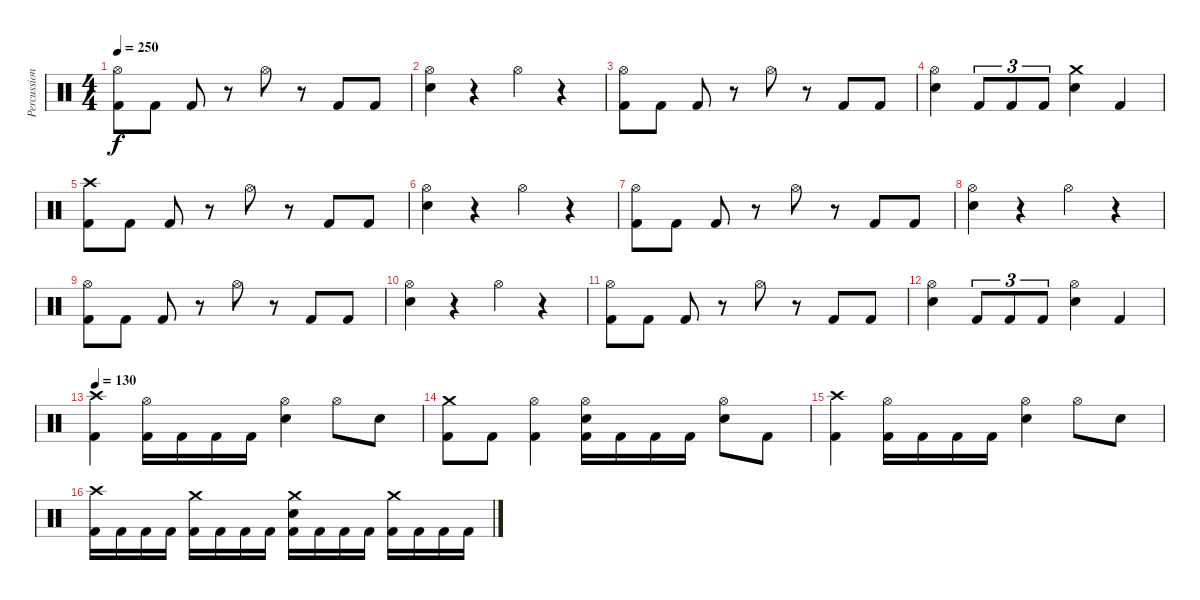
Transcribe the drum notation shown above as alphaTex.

\track ("Percussion" "Percussion") {instrument percussion}
\staff {score}
\articulation defaults
\ts (4 4)
\tempo 250
\clef neutral
\ks c
("Hi-Hat (open)" "Kick (hit) 2").8{dy f} "Kick (hit) 2".8 "Kick (hit) 2".8 r.8 "Hi-Hat (open)".8 r.8 "Kick (hit) 2".8 "Kick (hit) 2".8 |
("Hi-Hat (open)" "Electric Snare (hit)").4 r.4 "Hi-Hat (open)".4 r.4 |
("Hi-Hat (open)" "Kick (hit) 2").8 "Kick (hit) 2".8 "Kick (hit) 2".8 r.8 "Hi-Hat (open)".8 r.8 "Kick (hit) 2".8 "Kick (hit) 2".8 |
("Hi-Hat (open)" "Electric Snare (hit)").4 "Kick (hit) 2".8{tu (3 2)} "Kick (hit) 2".8{tu (3 2)} "Kick (hit) 2".8{tu (3 2)} ("Crash medium (hit)" "Electric Snare (hit)").4 "Kick (hit) 2".4 |
("Crash high (hit)" "Kick (hit) 2").8 "Kick (hit) 2".8 "Kick (hit) 2".8 r.8 "Hi-Hat (open)".8 r.8 "Kick (hit) 2".8 "Kick (hit) 2".8 |
("Hi-Hat (open)" "Electric Snare (hit)").4 r.4 "Hi-Hat (open)".4 r.4 |
("Hi-Hat (open)" "Kick (hit) 2").8 "Kick (hit) 2".8 "Kick (hit) 2".8 r.8 "Hi-Hat (open)".8 r.8 "Kick (hit) 2".8 "Kick (hit) 2".8 |
("Hi-Hat (open)" "Electric Snare (hit)").4 r.4 "Hi-Hat (open)".4 r.4 |
("Hi-Hat (open)" "Kick (hit) 2").8 "Kick (hit) 2".8 "Kick (hit) 2".8 r.8 "Hi-Hat (open)".8 r.8 "Kick (hit) 2".8 "Kick (hit) 2".8 |
("Hi-Hat (open)" "Electric Snare (hit)").4 r.4 "Hi-Hat (open)".4 r.4 |
("Hi-Hat (open)" "Kick (hit) 2").8 "Kick (hit) 2".8 "Kick (hit) 2".8 r.8 "Hi-Hat (open)".8 r.8 "Kick (hit) 2".8 "Kick (hit) 2".8 |
("Hi-Hat (open)" "Electric Snare (hit)").4 "Kick (hit) 2".8{tu (3 2)} "Kick (hit) 2".8{tu (3 2)} "Kick (hit) 2".8{tu (3 2)} ("Hi-Hat (open)" "Electric Snare (hit)").4 "Kick (hit) 2".4 |
\tempo 130
("Crash high (hit)" "Kick (hit) 2").4 ("Hi-Hat (open)" "Kick (hit) 2").16 "Kick (hit) 2".16 "Kick (hit) 2".16 "Kick (hit) 2".16 ("Hi-Hat (open)" "Electric Snare (hit)").4 "Hi-Hat (open)".8 "Electric Snare (hit)".8 |
("Crash medium (hit)" "Kick (hit) 2").8 "Kick (hit) 2".8 ("Hi-Hat (open)" "Kick (hit) 2").4 ("Hi-Hat (open)" "Electric Snare (hit)" "Kick (hit) 2").16 "Kick (hit) 2".16 "Kick (hit) 2".16 "Kick (hit) 2".16 ("Hi-Hat (open)" "Electric Snare (hit)").8 "Kick (hit) 2".8 |
("Crash high (hit)" "Kick (hit) 2").4 ("Hi-Hat (open)" "Kick (hit) 2").16 "Kick (hit) 2".16 "Kick (hit) 2".16 "Kick (hit) 2".16 ("Hi-Hat (open)" "Electric Snare (hit)").4 "Hi-Hat (open)".8 "Electric Snare (hit)".8 |
("Crash high (hit)" "Kick (hit) 2").16 "Kick (hit) 2".16 "Kick (hit) 2".16 "Kick (hit) 2".16 ("Crash medium (hit)" "Kick (hit) 2").16 "Kick (hit) 2".16 "Kick (hit) 2".16 "Kick (hit) 2".16 ("Crash medium (hit)" "Electric Snare (hit)" "Kick (hit) 2").16 "Kick (hit) 2".16 "Kick (hit) 2".16 "Kick (hit) 2".16 ("Crash medium (hit)" "Kick (hit) 2").16 "Kick (hit) 2".16 "Kick (hit) 2".16 "Kick (hit) 2".16
